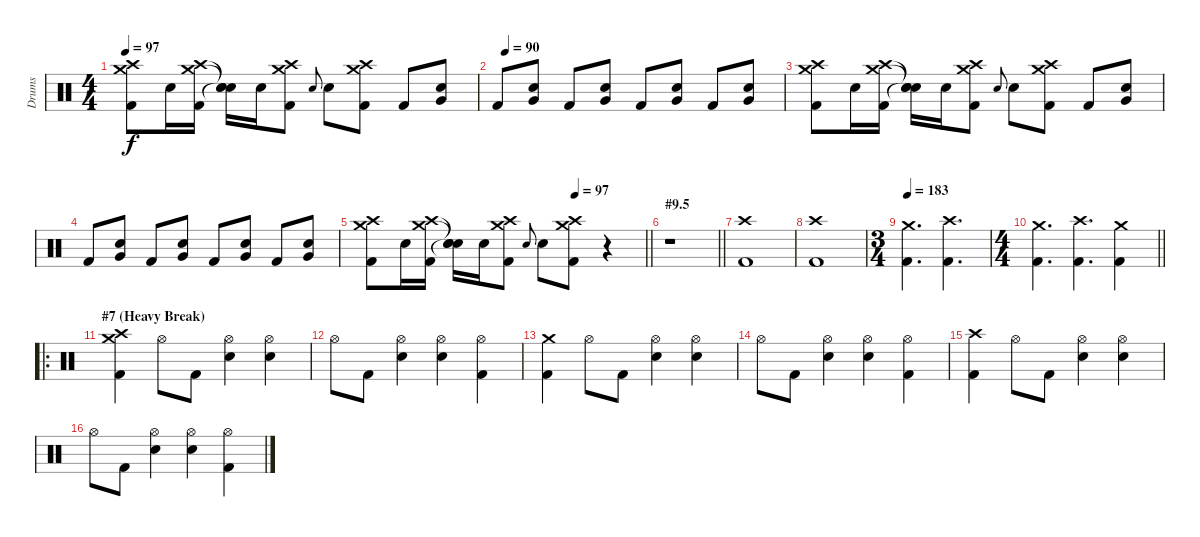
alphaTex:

\track ("Drums" "Drums") {instrument percussion}
\staff {score}
\articulation defaults
\ts (4 4)
\tempo 97
\clef neutral
\ks c
("Crash medium (hit)" "Crash high (hit)" "Kick (hit) 2").8{dy f} "Electric Snare (hit)".16 ("Crash medium (hit)" "Crash high (hit)" "Kick (hit) 2").16 ("Snare (hit)"{t} "Snare (hit)"{t} "Snare (hit)"{t}).16 "Electric Snare (hit)".16 ("Crash medium (hit)" "Crash high (hit)" "Kick (hit) 2").8 "Electric Snare (hit)".8{gr onbeat} "Electric Snare (hit)".8 ("Crash medium (hit)" "Crash high (hit)" "Kick (hit) 2").8 "Kick (hit) 2".8 ("Electric Snare (hit)" "Very Low Tom (hit)").8 |
\tempo (90 0.03125)
"Kick (hit) 2".8 ("Electric Snare (hit)" "Very Low Tom (hit)").8 "Kick (hit) 2".8 ("Electric Snare (hit)" "Very Low Tom (hit)").8 "Kick (hit) 2".8 ("Electric Snare (hit)" "Very Low Tom (hit)").8 "Kick (hit) 2".8 ("Electric Snare (hit)" "Very Low Tom (hit)").8 |
("Crash medium (hit)" "Crash high (hit)" "Kick (hit) 2").8 "Electric Snare (hit)".16 ("Crash medium (hit)" "Crash high (hit)" "Kick (hit) 2").16 ("Snare (hit)"{t} "Snare (hit)"{t} "Snare (hit)"{t}).16 "Electric Snare (hit)".16 ("Crash medium (hit)" "Crash high (hit)" "Kick (hit) 2").8 "Electric Snare (hit)".8{gr onbeat} "Electric Snare (hit)".8 ("Crash medium (hit)" "Crash high (hit)" "Kick (hit) 2").8 "Kick (hit) 2".8 ("Electric Snare (hit)" "Very Low Tom (hit)").8 |
"Kick (hit) 2".8 ("Electric Snare (hit)" "Very Low Tom (hit)").8 "Kick (hit) 2".8 ("Electric Snare (hit)" "Very Low Tom (hit)").8 "Kick (hit) 2".8 ("Electric Snare (hit)" "Very Low Tom (hit)").8 "Kick (hit) 2".8 ("Electric Snare (hit)" "Very Low Tom (hit)").8 |
\tempo (97 0.75)
\barLineRight lightlight
("Crash medium (hit)" "Crash high (hit)" "Kick (hit) 2").8 "Electric Snare (hit)".16 ("Crash medium (hit)" "Crash high (hit)" "Kick (hit) 2").16 ("Snare (hit)"{t} "Snare (hit)"{t} "Snare (hit)"{t}).16 "Electric Snare (hit)".16 ("Crash medium (hit)" "Crash high (hit)" "Kick (hit) 2").8 "Electric Snare (hit)".8{gr onbeat} "Electric Snare (hit)".8 ("Crash medium (hit)" "Crash high (hit)" "Kick (hit) 2").8 r.4 |
\section ("" "#9.5")
\barLineRight lightlight
r.1 |
("Crash high (hit)" "Kick (hit) 2").1 |
("Crash high (hit)" "Kick (hit) 2").1 |
\ts (3 4)
\tempo 183
("Crash medium (hit)" "Kick (hit) 2").4{d} ("Crash high (hit)" "Kick (hit) 2").4{d} |
\ts (4 4)
\barLineRight lightlight
("Crash medium (hit)" "Kick (hit) 2").4{d} ("Crash high (hit)" "Kick (hit) 2").4{d} ("Crash medium (hit)" "Kick (hit) 2").4 |
\ro
\section ("" "#7 (Heavy Break)")
("Crash medium (hit)" "Crash high (hit)" "Kick (hit) 2").4 "Hi-Hat (open)".8 "Kick (hit) 2".8 ("Hi-Hat (open)" "Electric Snare (hit)").4 ("Hi-Hat (open)" "Electric Snare (hit)").4 |
"Hi-Hat (open)".8 "Kick (hit) 2".8 ("Hi-Hat (open)" "Electric Snare (hit)").4 ("Hi-Hat (open)" "Electric Snare (hit)").4 ("Hi-Hat (open)" "Kick (hit) 2").4 |
("Crash medium (hit)" "Kick (hit) 2").4 "Hi-Hat (open)".8 "Kick (hit) 2".8 ("Hi-Hat (open)" "Electric Snare (hit)").4 ("Hi-Hat (open)" "Electric Snare (hit)").4 |
"Hi-Hat (open)".8 "Kick (hit) 2".8 ("Hi-Hat (open)" "Electric Snare (hit)").4 ("Hi-Hat (open)" "Electric Snare (hit)").4 ("Hi-Hat (open)" "Kick (hit) 2").4 |
("Crash high (hit)" "Kick (hit) 2").4 "Hi-Hat (open)".8 "Kick (hit) 2".8 ("Hi-Hat (open)" "Electric Snare (hit)").4 ("Hi-Hat (open)" "Electric Snare (hit)").4 |
"Hi-Hat (open)".8 "Kick (hit) 2".8 ("Hi-Hat (open)" "Electric Snare (hit)").4 ("Hi-Hat (open)" "Electric Snare (hit)").4 ("Hi-Hat (open)" "Kick (hit) 2").4
